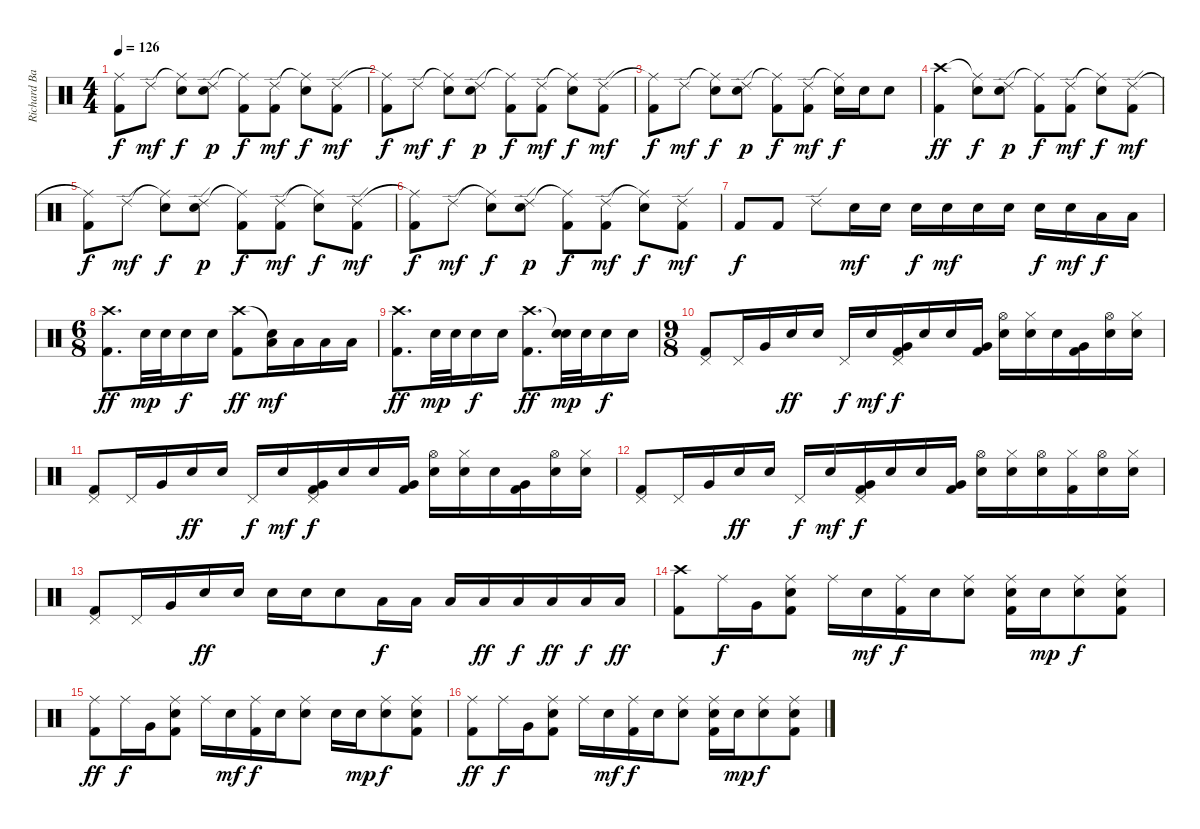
\track ("Richard Bailey" "Richard Ba") {instrument percussion}
\staff {score}
\articulation defaults
\ts (4 4)
\tempo 126
\clef neutral
\ks c
("Ride (middle)"{t} "Kick (hit) 2").8{dy f} "Ride (edge) 2".8{dy mf} ("Ride (middle)"{t} "Snare (hit) 2").8{dy f} ("Ride (edge) 2" "Snare (hit) 2").8{dy p} ("Ride (middle)"{t} "Kick (hit) 2").8{dy f} ("Ride (edge) 2" "Kick (hit) 2").8{dy mf} ("Ride (middle)"{t} "Snare (hit) 2").8{dy f} ("Ride (edge) 2" "Kick (hit) 2").8{dy mf} |
("Ride (middle)"{t} "Kick (hit) 2").8{dy f} "Ride (edge) 2".8{dy mf} ("Ride (middle)"{t} "Snare (hit) 2").8{dy f} ("Ride (edge) 2" "Snare (hit) 2").8{dy p} ("Ride (middle)"{t} "Kick (hit) 2").8{dy f} ("Ride (edge) 2" "Kick (hit) 2").8{dy mf} ("Ride (middle)"{t} "Snare (hit) 2").8{dy f} ("Ride (edge) 2" "Kick (hit) 2").8{dy mf} |
("Ride (middle)"{t} "Kick (hit) 2").8{dy f} "Ride (edge) 2".8{dy mf} ("Ride (middle)"{t} "Snare (hit) 2").8{dy f} ("Ride (edge) 2" "Snare (hit) 2").8{dy p} ("Ride (middle)"{t} "Kick (hit) 2").8{dy f} ("Ride (edge) 2" "Kick (hit) 2").8{dy mf} ("Ride (middle)"{t} "Electric Snare (hit)").16{dy f} "Electric Snare (hit)".16 "Electric Snare (hit)".8 |
("Crash high (hit)" "Kick (hit) 2").4{dy ff} ("Ride (middle)"{t} "Snare (hit) 2").8{dy f} ("Ride (edge) 2" "Snare (hit) 2").8{dy p} ("Ride (middle)"{t} "Kick (hit) 2").8{dy f} ("Ride (edge) 2" "Kick (hit) 2").8{dy mf} ("Ride (middle)"{t} "Snare (hit) 2").8{dy f} ("Ride (edge) 2" "Kick (hit) 2").8{dy mf} |
("Ride (middle)"{t} "Kick (hit) 2").8{dy f} "Ride (edge) 2".8{dy mf} ("Ride (middle)"{t} "Snare (hit) 2").8{dy f} ("Ride (edge) 2" "Snare (hit) 2").8{dy p} ("Ride (middle)"{t} "Kick (hit) 2").8{dy f} ("Ride (edge) 2" "Kick (hit) 2").8{dy mf} ("Ride (middle)"{t} "Snare (hit) 2").8{dy f} ("Ride (edge) 2" "Kick (hit) 2").8{dy mf} |
("Ride (middle)"{t} "Kick (hit) 2").8{dy f} "Ride (edge) 2".8{dy mf} ("Ride (middle)"{t} "Snare (hit) 2").8{dy f} ("Ride (edge) 2" "Snare (hit) 2").8{dy p} ("Ride (middle)"{t} "Kick (hit) 2").8{dy f} ("Ride (edge) 2" "Kick (hit) 2").8{dy mf} ("Ride (middle)"{t} "Snare (hit) 2").8{dy f} ("Ride (edge) 2" "Kick (hit) 2").8{dy mf} |
"Kick (hit) 2".8{dy f} "Kick (hit) 2".8 "Ride (edge) 2".8 "Snare (hit) 2".16{dy mf} "Snare (hit) 2".16 "Electric Snare (hit)".16{dy f} "Electric Snare (hit)".16{dy mf} "Snare (hit) 2".16 "Snare (hit) 2".16 "Electric Snare (hit)".16{dy f} "Electric Snare (hit)".16{dy mf} "Low Tom (hit)".16{dy f} "Low Tom (hit)".16 |
\ts (6 8)
("Crash high (hit)" "Kick (hit) 2").8{d dy ff} "Snare (hit) 2".32{dy mp} "Snare (hit) 2".32 "Snare (hit) 2".16{dy f} "Snare (hit) 2".16 ("Crash high (hit)" "Kick (hit) 2").8{dy ff} ("Snare (hit)"{t} "Low Floor Tom (hit)").16{dy mf} "Low Floor Tom (hit)".16 "Low Floor Tom (hit)".16 "Low Floor Tom (hit)".16 |
("Crash high (hit)" "Kick (hit) 2").8{d dy ff} "Snare (hit) 2".32{dy mp} "Snare (hit) 2".32 "Snare (hit) 2".16{dy f} "Snare (hit) 2".16 ("Crash high (hit)" "Kick (hit) 2").8{d dy ff} ("Snare (hit)"{t} "Snare (hit) 2").32{dy mp} "Snare (hit) 2".32 "Snare (hit) 2".16{dy f} "Snare (hit) 2".16 |
\ts (9 8)
("Pedal Hi-Hat (hit)" "Kick (hit) 2").8 "Pedal Hi-Hat (hit)".16 "Very Low Tom (hit)".16 "Electric Snare (hit)".16{dy ff} "Electric Snare (hit)".16 "Pedal Hi-Hat (hit)".16{dy f} "Snare (hit) 2".16{dy mf} ("Pedal Hi-Hat (hit)" "Very Low Tom (hit)" "Kick (hit) 2").16{dy f} "Snare (hit) 2".16 "Snare (hit) 2".16 ("Very Low Tom (hit)" "Kick (hit) 2").16 ("Hi-Hat (open)" "Snare (hit) 2").16 ("Hi-Hat (closed)" "Snare (hit) 2").16 "Snare (hit) 2".16 ("Very Low Tom (hit)" "Kick (hit) 2").16 ("Hi-Hat (open)" "Electric Snare (hit)").16 ("Hi-Hat (closed)" "Electric Snare (hit)").16 |
("Pedal Hi-Hat (hit)" "Kick (hit) 2").8 "Pedal Hi-Hat (hit)".16 "Very Low Tom (hit)".16 "Electric Snare (hit)".16{dy ff} "Electric Snare (hit)".16 "Pedal Hi-Hat (hit)".16{dy f} "Snare (hit) 2".16{dy mf} ("Pedal Hi-Hat (hit)" "Very Low Tom (hit)" "Kick (hit) 2").16{dy f} "Snare (hit) 2".16 "Snare (hit) 2".16 ("Very Low Tom (hit)" "Kick (hit) 2").16 ("Hi-Hat (open)" "Snare (hit) 2").16 ("Hi-Hat (closed)" "Snare (hit) 2").16 "Snare (hit) 2".16 ("Very Low Tom (hit)" "Kick (hit) 2").16 ("Hi-Hat (open)" "Electric Snare (hit)").16 ("Hi-Hat (closed)" "Electric Snare (hit)").16 |
("Pedal Hi-Hat (hit)" "Kick (hit) 2").8 "Pedal Hi-Hat (hit)".16 "Very Low Tom (hit)".16 "Electric Snare (hit)".16{dy ff} "Electric Snare (hit)".16 "Pedal Hi-Hat (hit)".16{dy f} "Snare (hit) 2".16{dy mf} ("Pedal Hi-Hat (hit)" "Very Low Tom (hit)" "Kick (hit) 2").16{dy f} "Snare (hit) 2".16 "Snare (hit) 2".16 ("Very Low Tom (hit)" "Kick (hit) 2").16 ("Hi-Hat (open)" "Snare (hit) 2").16 ("Hi-Hat (closed)" "Snare (hit) 2").16 ("Hi-Hat (open)" "Snare (hit) 2").16 ("Hi-Hat (closed)" "Kick (hit) 2").16 ("Hi-Hat (open)" "Electric Snare (hit)").16 ("Hi-Hat (closed)" "Electric Snare (hit)").16 |
("Pedal Hi-Hat (hit)" "Kick (hit) 2").8 "Pedal Hi-Hat (hit)".16 "Very Low Tom (hit)".16 "Electric Snare (hit)".16{dy ff} "Electric Snare (hit)".16 "Snare (hit) 2".16 "Snare (hit) 2".16 "Snare (hit) 2".8 "Low Tom (hit)".16{dy f} "Low Tom (hit)".16 "Low Tom (hit)".16 "Low Floor Tom (hit)".16{dy ff} "Low Floor Tom (hit)".16{dy f} "Low Floor Tom (hit)".16{dy ff} "Low Floor Tom (hit)".16{dy f} "Low Floor Tom (hit)".16{dy ff} |
("Crash high (hit)" "Kick (hit) 2").8 "Ride (middle)".16{dy f} "Very Low Tom (hit)".16 ("Ride (middle)" "Snare (hit) 2" "Kick (hit) 2").8 "Ride (middle)".16 "Snare (hit) 2".16{dy mf} ("Ride (middle)" "Kick (hit) 2").16{dy f} "Snare (hit) 2".16 ("Ride (middle)" "Snare (hit) 2").8 ("Ride (middle)" "Snare (hit) 2" "Kick (hit) 2").16 "Snare (hit) 2".16{dy mp} ("Ride (middle)" "Snare (hit) 2").8{dy f} ("Ride (middle)" "Snare (hit) 2" "Kick (hit) 2").8 |
("Ride (middle)" "Kick (hit) 2").8{dy ff} "Ride (middle)".16{dy f} "Very Low Tom (hit)".16 ("Ride (middle)" "Snare (hit) 2" "Kick (hit) 2").8 "Ride (middle)".16 "Snare (hit) 2".16{dy mf} ("Ride (middle)" "Kick (hit) 2").16{dy f} "Snare (hit) 2".16 ("Ride (middle)" "Snare (hit) 2").8 "Snare (hit) 2".16 "Snare (hit) 2".16{dy mp} ("Ride (middle)" "Snare (hit) 2").8{dy f} ("Ride (middle)" "Snare (hit) 2" "Kick (hit) 2").8 |
("Ride (middle)" "Kick (hit) 2").8{dy ff} "Ride (middle)".16{dy f} "Very Low Tom (hit)".16 ("Ride (middle)" "Snare (hit) 2" "Kick (hit) 2").8 "Ride (middle)".16 "Snare (hit) 2".16{dy mf} ("Ride (middle)" "Kick (hit) 2").16{dy f} "Snare (hit) 2".16 ("Ride (middle)" "Snare (hit) 2").8 ("Ride (middle)" "Snare (hit) 2" "Kick (hit) 2").16 "Snare (hit) 2".16{dy mp} ("Ride (middle)" "Snare (hit) 2").8{dy f} ("Ride (middle)" "Snare (hit) 2" "Kick (hit) 2").8
